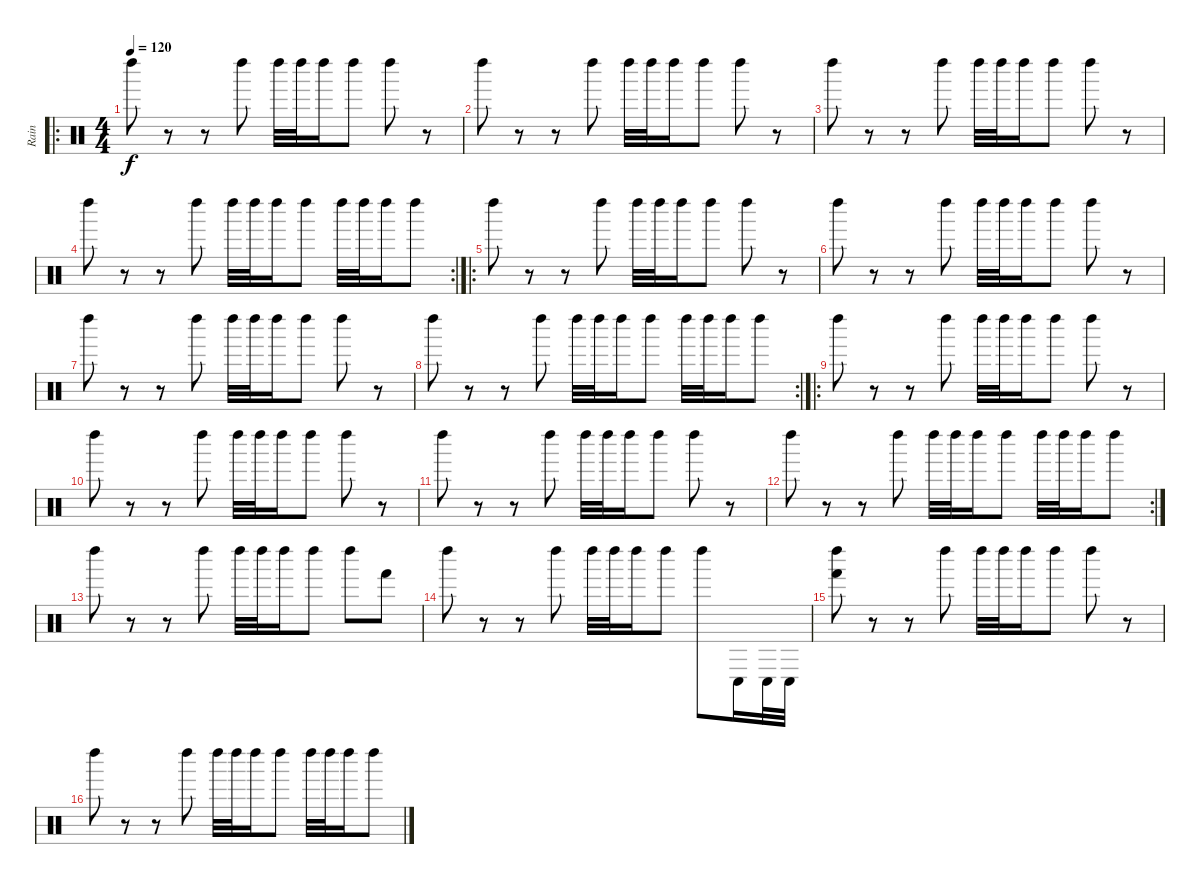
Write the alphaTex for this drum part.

\track ("Rain" "Rain") {instrument percussion}
\staff {score}
\articulation defaults
\ro
\ts (4 4)
\tempo 120
\clef neutral
\ks c "Left Maraca (hit)".8{dy f}
r.8 r.8 "Left Maraca (hit)".8 "Left Maraca (hit)".32 "Left Maraca (hit)".32 "Left Maraca (hit)".16 "Left Maraca (hit)".8 "Left Maraca (hit)".8 r.8 |
"Left Maraca (hit)".8 r.8 r.8 "Left Maraca (hit)".8 "Left Maraca (hit)".32 "Left Maraca (hit)".32 "Left Maraca (hit)".16 "Left Maraca (hit)".8 "Left Maraca (hit)".8 r.8 |
"Left Maraca (hit)".8 r.8 r.8 "Left Maraca (hit)".8 "Left Maraca (hit)".32 "Left Maraca (hit)".32 "Left Maraca (hit)".16 "Left Maraca (hit)".8 "Left Maraca (hit)".8 r.8 |
\rc 2 "Left Maraca (hit)".8
r.8 r.8 "Left Maraca (hit)".8 "Left Maraca (hit)".32 "Left Maraca (hit)".32 "Left Maraca (hit)".16 "Left Maraca (hit)".8 "Left Maraca (hit)".32 "Left Maraca (hit)".32 "Left Maraca (hit)".16 "Left Maraca (hit)".8 |
\ro "Left Maraca (hit)".8
r.8 r.8 "Left Maraca (hit)".8 "Left Maraca (hit)".32 "Left Maraca (hit)".32 "Left Maraca (hit)".16 "Left Maraca (hit)".8 "Left Maraca (hit)".8 r.8 |
"Left Maraca (hit)".8 r.8 r.8 "Left Maraca (hit)".8 "Left Maraca (hit)".32 "Left Maraca (hit)".32 "Left Maraca (hit)".16 "Left Maraca (hit)".8 "Left Maraca (hit)".8 r.8 |
"Left Maraca (hit)".8 r.8 r.8 "Left Maraca (hit)".8 "Left Maraca (hit)".32 "Left Maraca (hit)".32 "Left Maraca (hit)".16 "Left Maraca (hit)".8 "Left Maraca (hit)".8 r.8 |
\rc 2 "Left Maraca (hit)".8
r.8 r.8 "Left Maraca (hit)".8 "Left Maraca (hit)".32 "Left Maraca (hit)".32 "Left Maraca (hit)".16 "Left Maraca (hit)".8 "Left Maraca (hit)".32 "Left Maraca (hit)".32 "Left Maraca (hit)".16 "Left Maraca (hit)".8 |
\ro "Left Maraca (hit)".8
r.8 r.8 "Left Maraca (hit)".8 "Left Maraca (hit)".32 "Left Maraca (hit)".32 "Left Maraca (hit)".16 "Left Maraca (hit)".8 "Left Maraca (hit)".8 r.8 |
"Left Maraca (hit)".8 r.8 r.8 "Left Maraca (hit)".8 "Left Maraca (hit)".32 "Left Maraca (hit)".32 "Left Maraca (hit)".16 "Left Maraca (hit)".8 "Left Maraca (hit)".8 r.8 |
"Left Maraca (hit)".8 r.8 r.8 "Left Maraca (hit)".8 "Left Maraca (hit)".32 "Left Maraca (hit)".32 "Left Maraca (hit)".16 "Left Maraca (hit)".8 "Left Maraca (hit)".8 r.8 |
\rc 2 "Left Maraca (hit)".8
r.8 r.8 "Left Maraca (hit)".8 "Left Maraca (hit)".32 "Left Maraca (hit)".32 "Left Maraca (hit)".16 "Left Maraca (hit)".8 "Left Maraca (hit)".32 "Left Maraca (hit)".32 "Left Maraca (hit)".16 "Left Maraca (hit)".8 |
"Left Maraca (hit)".8 r.8 r.8 "Left Maraca (hit)".8 "Left Maraca (hit)".32 "Left Maraca (hit)".32 "Left Maraca (hit)".16 "Left Maraca (hit)".8 "Left Maraca (hit)".8 "Hand (hit)".8 |
"Left Maraca (hit)".8 r.8 r.8 "Left Maraca (hit)".8 "Left Maraca (hit)".32 "Left Maraca (hit)".32 "Left Maraca (hit)".16 "Left Maraca (hit)".8 "Left Maraca (hit)".8 "Conga low (hit)".16 "Conga low (hit)".32 "Conga low (hit)".32 |
("Left Maraca (hit)" "Hand (hit)").8 r.8 r.8 "Left Maraca (hit)".8 "Left Maraca (hit)".32 "Left Maraca (hit)".32 "Left Maraca (hit)".16 "Left Maraca (hit)".8 "Left Maraca (hit)".8 r.8 |
"Left Maraca (hit)".8 r.8 r.8 "Left Maraca (hit)".8 "Left Maraca (hit)".32 "Left Maraca (hit)".32 "Left Maraca (hit)".16 "Left Maraca (hit)".8 "Left Maraca (hit)".32 "Left Maraca (hit)".32 "Left Maraca (hit)".16 "Left Maraca (hit)".8
